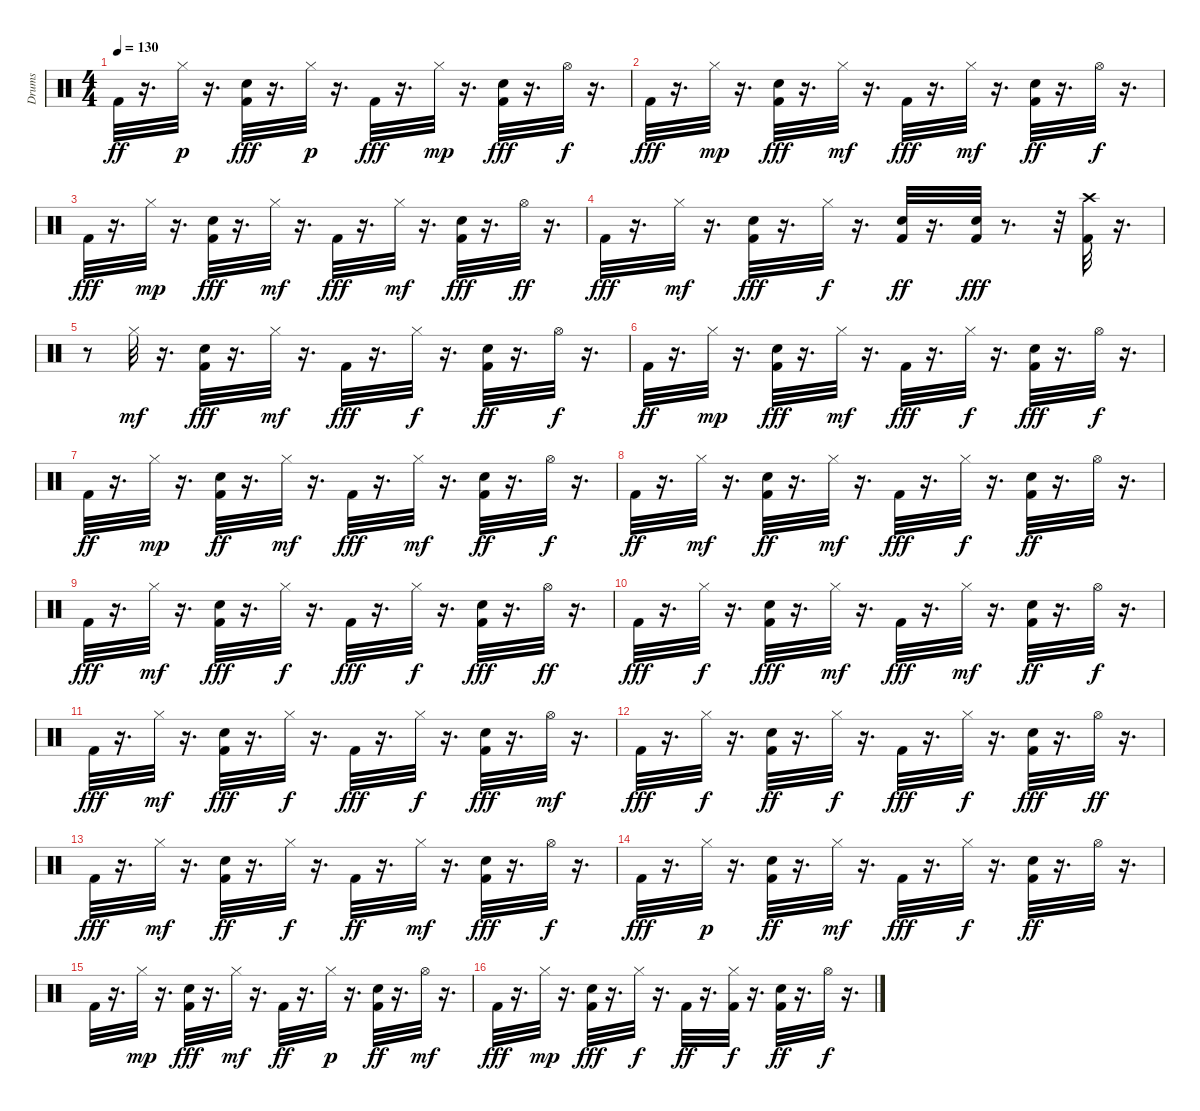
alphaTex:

\track ("Drums               " "Drums     ") {instrument percussion}
\staff {score}
\articulation defaults
\ts (4 4)
\tempo 130
\clef neutral
\ks c "Kick (hit) 2".32{dy ff}
r.16{d} "Hi-Hat (closed)".32{dy p} r.16{d} ("Kick (hit) 2" "Snare (hit) 2").32{dy fff} r.16{d} "Hi-Hat (closed)".32{dy p} r.16{d} "Kick (hit) 2".32{dy fff} r.16{d} "Hi-Hat (closed)".32{dy mp} r.16{d} ("Kick (hit) 2" "Snare (hit) 2").32{dy fff} r.16{d} "Hi-Hat (open)".32{dy f} r.16{d} |
"Kick (hit) 2".32{dy fff} r.16{d} "Hi-Hat (closed)".32{dy mp} r.16{d} ("Kick (hit) 2" "Snare (hit) 2").32{dy fff} r.16{d} "Hi-Hat (closed)".32{dy mf} r.16{d} "Kick (hit) 2".32{dy fff} r.16{d} "Hi-Hat (closed)".32{dy mf} r.16{d} ("Kick (hit) 2" "Snare (hit) 2").32{dy ff} r.16{d} "Hi-Hat (open)".32{dy f} r.16{d} |
"Kick (hit) 2".32{dy fff} r.16{d} "Hi-Hat (closed)".32{dy mp} r.16{d} ("Kick (hit) 2" "Snare (hit) 2").32{dy fff} r.16{d} "Hi-Hat (closed)".32{dy mf} r.16{d} "Kick (hit) 2".32{dy fff} r.16{d} "Hi-Hat (closed)".32{dy mf} r.16{d} ("Kick (hit) 2" "Snare (hit) 2").32{dy fff} r.16{d} "Hi-Hat (open)".32{dy ff} r.16{d} |
"Kick (hit) 2".32{dy fff} r.16{d} "Hi-Hat (closed)".32{dy mf} r.16{d} ("Kick (hit) 2" "Snare (hit) 2").32{dy fff} r.16{d} "Hi-Hat (closed)".32{dy f} r.16{d} ("Kick (hit) 2" "Snare (hit) 2").32{dy ff} r.16{d} ("Kick (hit) 2" "Snare (hit) 2").32{dy fff} r.8{d} r.32 ("Kick (hit) 2" "Crash high (hit)").32 r.16{d} |
r.8 "Hi-Hat (closed)".32{dy mf} r.16{d} ("Kick (hit) 2" "Snare (hit) 2").32{dy fff} r.16{d} "Hi-Hat (closed)".32{dy mf} r.16{d} "Kick (hit) 2".32{dy fff} r.16{d} "Hi-Hat (closed)".32{dy f} r.16{d} ("Kick (hit) 2" "Snare (hit) 2").32{dy ff} r.16{d} "Hi-Hat (open)".32{dy f} r.16{d} |
"Kick (hit) 2".32{dy ff} r.16{d} "Hi-Hat (closed)".32{dy mp} r.16{d} ("Kick (hit) 2" "Snare (hit) 2").32{dy fff} r.16{d} "Hi-Hat (closed)".32{dy mf} r.16{d} "Kick (hit) 2".32{dy fff} r.16{d} "Hi-Hat (closed)".32{dy f} r.16{d} ("Kick (hit) 2" "Snare (hit) 2").32{dy fff} r.16{d} "Hi-Hat (open)".32{dy f} r.16{d} |
"Kick (hit) 2".32{dy ff} r.16{d} "Hi-Hat (closed)".32{dy mp} r.16{d} ("Kick (hit) 2" "Snare (hit) 2").32{dy ff} r.16{d} "Hi-Hat (closed)".32{dy mf} r.16{d} "Kick (hit) 2".32{dy fff} r.16{d} "Hi-Hat (closed)".32{dy mf} r.16{d} ("Kick (hit) 2" "Snare (hit) 2").32{dy ff} r.16{d} "Hi-Hat (open)".32{dy f} r.16{d} |
"Kick (hit) 2".32{dy ff} r.16{d} "Hi-Hat (closed)".32{dy mf} r.16{d} ("Kick (hit) 2" "Snare (hit) 2").32{dy ff} r.16{d} "Hi-Hat (closed)".32{dy mf} r.16{d} "Kick (hit) 2".32{dy fff} r.16{d} "Hi-Hat (closed)".32{dy f} r.16{d} ("Kick (hit) 2" "Snare (hit) 2").32{dy ff} r.16{d} "Hi-Hat (open)".32 r.16{d} |
"Kick (hit) 2".32{dy fff} r.16{d} "Hi-Hat (closed)".32{dy mf} r.16{d} ("Kick (hit) 2" "Snare (hit) 2").32{dy fff} r.16{d} "Hi-Hat (closed)".32{dy f} r.16{d} "Kick (hit) 2".32{dy fff} r.16{d} "Hi-Hat (closed)".32{dy f} r.16{d} ("Kick (hit) 2" "Snare (hit) 2").32{dy fff} r.16{d} "Hi-Hat (open)".32{dy ff} r.16{d} |
"Kick (hit) 2".32{dy fff} r.16{d} "Hi-Hat (closed)".32{dy f} r.16{d} ("Kick (hit) 2" "Snare (hit) 2").32{dy fff} r.16{d} "Hi-Hat (closed)".32{dy mf} r.16{d} "Kick (hit) 2".32{dy fff} r.16{d} "Hi-Hat (closed)".32{dy mf} r.16{d} ("Kick (hit) 2" "Snare (hit) 2").32{dy ff} r.16{d} "Hi-Hat (open)".32{dy f} r.16{d} |
"Kick (hit) 2".32{dy fff} r.16{d} "Hi-Hat (closed)".32{dy mf} r.16{d} ("Kick (hit) 2" "Snare (hit) 2").32{dy fff} r.16{d} "Hi-Hat (closed)".32{dy f} r.16{d} "Kick (hit) 2".32{dy fff} r.16{d} "Hi-Hat (closed)".32{dy f} r.16{d} ("Kick (hit) 2" "Snare (hit) 2").32{dy fff} r.16{d} "Hi-Hat (open)".32{dy mf} r.16{d} |
"Kick (hit) 2".32{dy fff} r.16{d} "Hi-Hat (closed)".32{dy f} r.16{d} ("Kick (hit) 2" "Snare (hit) 2").32{dy ff} r.16{d} "Hi-Hat (closed)".32{dy f} r.16{d} "Kick (hit) 2".32{dy fff} r.16{d} "Hi-Hat (closed)".32{dy f} r.16{d} ("Kick (hit) 2" "Snare (hit) 2").32{dy fff} r.16{d} "Hi-Hat (open)".32{dy ff} r.16{d} |
"Kick (hit) 2".32{dy fff} r.16{d} "Hi-Hat (closed)".32{dy mf} r.16{d} ("Kick (hit) 2" "Snare (hit) 2").32{dy ff} r.16{d} "Hi-Hat (closed)".32{dy f} r.16{d} "Kick (hit) 2".32{dy ff} r.16{d} "Hi-Hat (closed)".32{dy mf} r.16{d} ("Kick (hit) 2" "Snare (hit) 2").32{dy fff} r.16{d} "Hi-Hat (open)".32{dy f} r.16{d} |
"Kick (hit) 2".32{dy fff} r.16{d} "Hi-Hat (closed)".32{dy p} r.16{d} ("Kick (hit) 2" "Snare (hit) 2").32{dy ff} r.16{d} "Hi-Hat (closed)".32{dy mf} r.16{d} "Kick (hit) 2".32{dy fff} r.16{d} "Hi-Hat (closed)".32{dy f} r.16{d} ("Kick (hit) 2" "Snare (hit) 2").32{dy ff} r.16{d} "Hi-Hat (open)".32 r.16{d} |
"Kick (hit) 2".32 r.16{d} "Hi-Hat (closed)".32{dy mp} r.16{d} ("Kick (hit) 2" "Snare (hit) 2").32{dy fff} r.16{d} "Hi-Hat (closed)".32{dy mf} r.16{d} "Kick (hit) 2".32{dy ff} r.16{d} "Hi-Hat (closed)".32{dy p} r.16{d} ("Kick (hit) 2" "Snare (hit) 2").32{dy ff} r.16{d} "Hi-Hat (open)".32{dy mf} r.16{d} |
"Kick (hit) 2".32{dy fff} r.16{d} "Hi-Hat (closed)".32{dy mp} r.16{d} ("Kick (hit) 2" "Snare (hit) 2").32{dy fff} r.16{d} "Hi-Hat (closed)".32{dy f} r.16{d} "Kick (hit) 2".32{dy ff} r.16{d} ("Kick (hit) 2" "Hi-Hat (closed)").32{dy f} r.16{d} ("Kick (hit) 2" "Snare (hit) 2").32{dy ff} r.16{d} "Hi-Hat (open)".32{dy f} r.16{d}
